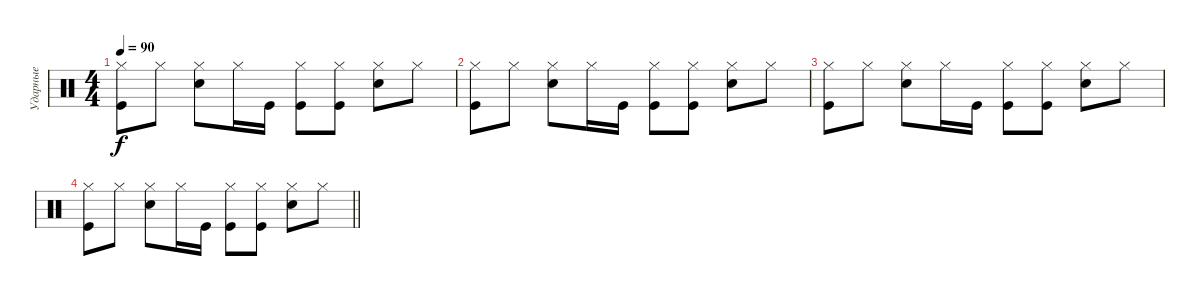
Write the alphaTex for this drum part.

\track ("Ударные" "Ударные") {instrument percussion}
\staff {score}
\articulation defaults
\ts (4 4)
\tempo 90
\clef neutral
\ks c
("Kick (hit)" "Hi-Hat (closed)").8{dy f} "Hi-Hat (closed)".8 ("Snare (hit) 2" "Hi-Hat (closed)").8 "Hi-Hat (closed)".16 "Kick (hit)".16 ("Hi-Hat (closed)" "Kick (hit)").8 ("Hi-Hat (closed)" "Kick (hit)").8 ("Hi-Hat (closed)" "Snare (hit) 2").8 "Hi-Hat (closed)".8 |
("Kick (hit)" "Hi-Hat (closed)").8 "Hi-Hat (closed)".8 ("Snare (hit) 2" "Hi-Hat (closed)").8 "Hi-Hat (closed)".16 "Kick (hit)".16 ("Hi-Hat (closed)" "Kick (hit)").8 ("Hi-Hat (closed)" "Kick (hit)").8 ("Hi-Hat (closed)" "Snare (hit) 2").8 "Hi-Hat (closed)".8 |
("Kick (hit)" "Hi-Hat (closed)").8 "Hi-Hat (closed)".8 ("Snare (hit) 2" "Hi-Hat (closed)").8 "Hi-Hat (closed)".16 "Kick (hit)".16 ("Hi-Hat (closed)" "Kick (hit)").8 ("Hi-Hat (closed)" "Kick (hit)").8 ("Hi-Hat (closed)" "Snare (hit) 2").8 "Hi-Hat (closed)".8 |
\barLineRight lightlight
("Kick (hit)" "Hi-Hat (closed)").8 "Hi-Hat (closed)".8 ("Snare (hit) 2" "Hi-Hat (closed)").8 "Hi-Hat (closed)".16 "Kick (hit)".16 ("Hi-Hat (closed)" "Kick (hit)").8 ("Hi-Hat (closed)" "Kick (hit)").8 ("Hi-Hat (closed)" "Snare (hit) 2").8 "Hi-Hat (closed)".8
